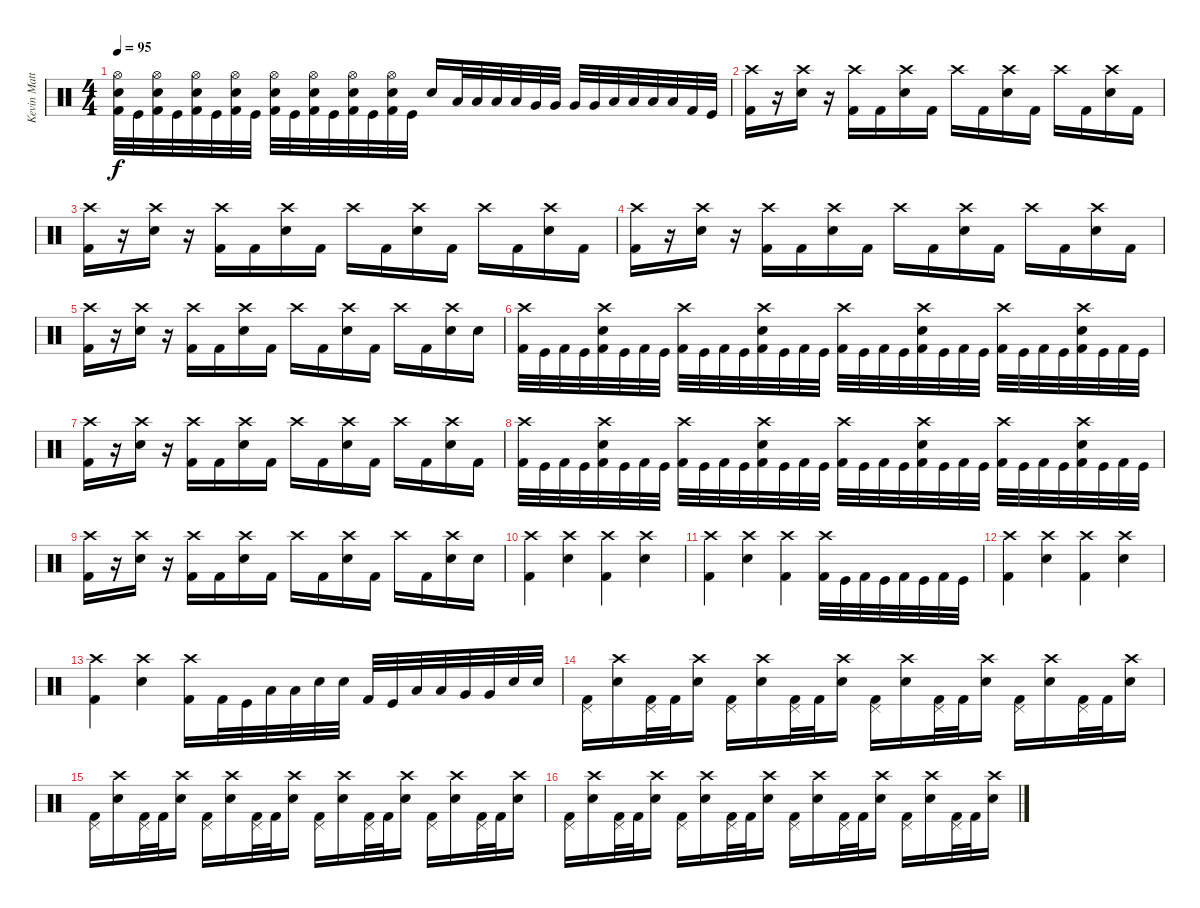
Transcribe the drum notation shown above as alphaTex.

\track ("Kevin Matthews (Drums)" "Kevin Matt") {instrument percussion}
\staff {score}
\articulation defaults
\ts (4 4)
\tempo 95
\clef neutral
\ks c
("Hi-Hat (open)" "Electric Snare (hit)" "Kick (hit) 2").32{dy f} "Kick (hit)".32 ("Hi-Hat (open)" "Electric Snare (hit)" "Kick (hit) 2").32 "Kick (hit)".32 ("Hi-Hat (open)" "Electric Snare (hit)" "Kick (hit) 2").32 "Kick (hit)".32 ("Hi-Hat (open)" "Electric Snare (hit)" "Kick (hit) 2").32 "Kick (hit)".32 ("Hi-Hat (open)" "Electric Snare (hit)" "Kick (hit) 2").32 "Kick (hit)".32 ("Hi-Hat (open)" "Electric Snare (hit)" "Kick (hit) 2").32 "Kick (hit)".32 ("Hi-Hat (open)" "Electric Snare (hit)" "Kick (hit) 2").32 "Kick (hit)".32 ("Hi-Hat (open)" "Electric Snare (hit)" "Kick (hit) 2").32 "Kick (hit)".32 "Electric Snare (hit)".16 "Low Tom (hit)".32 "Low Tom (hit)".32 "Low Tom (hit)".32 "Low Tom (hit)".32 "Very Low Tom (hit)".32 "Very Low Tom (hit)".32 "Very Low Tom (hit)".32 "Very Low Tom (hit)".32 "Low Floor Tom (hit)".32 "Low Floor Tom (hit)".32 "Low Floor Tom (hit)".32 "Low Floor Tom (hit)".32 "Kick (hit) 2".32 "Kick (hit)".32 |
("Crash high (hit)" "Kick (hit) 2").16 r.16 ("Crash high (hit)" "Electric Snare (hit)").16 r.16 ("Crash high (hit)" "Kick (hit) 2").16 "Kick (hit) 2".16 ("Crash high (hit)" "Electric Snare (hit)").16 "Kick (hit) 2".16 "Crash high (hit)".16 "Kick (hit) 2".16 ("Crash high (hit)" "Electric Snare (hit)").16 "Kick (hit) 2".16 "Crash high (hit)".16 "Kick (hit) 2".16 ("Crash high (hit)" "Electric Snare (hit)").16 "Kick (hit) 2".16 |
("Crash high (hit)" "Kick (hit) 2").16 r.16 ("Crash high (hit)" "Electric Snare (hit)").16 r.16 ("Crash high (hit)" "Kick (hit) 2").16 "Kick (hit) 2".16 ("Crash high (hit)" "Electric Snare (hit)").16 "Kick (hit) 2".16 "Crash high (hit)".16 "Kick (hit) 2".16 ("Crash high (hit)" "Electric Snare (hit)").16 "Kick (hit) 2".16 "Crash high (hit)".16 "Kick (hit) 2".16 ("Crash high (hit)" "Electric Snare (hit)").16 "Kick (hit) 2".16 |
("Crash high (hit)" "Kick (hit) 2").16 r.16 ("Crash high (hit)" "Electric Snare (hit)").16 r.16 ("Crash high (hit)" "Kick (hit) 2").16 "Kick (hit) 2".16 ("Crash high (hit)" "Electric Snare (hit)").16 "Kick (hit) 2".16 "Crash high (hit)".16 "Kick (hit) 2".16 ("Crash high (hit)" "Electric Snare (hit)").16 "Kick (hit) 2".16 "Crash high (hit)".16 "Kick (hit) 2".16 ("Crash high (hit)" "Electric Snare (hit)").16 "Kick (hit) 2".16 |
("Crash high (hit)" "Kick (hit) 2").16 r.16 ("Crash high (hit)" "Electric Snare (hit)").16 r.16 ("Crash high (hit)" "Kick (hit) 2").16 "Kick (hit) 2".16 ("Crash high (hit)" "Electric Snare (hit)").16 "Kick (hit) 2".16 "Crash high (hit)".16 "Kick (hit) 2".16 ("Crash high (hit)" "Electric Snare (hit)").16 "Kick (hit) 2".16 "Crash high (hit)".16 "Kick (hit) 2".16 ("Crash high (hit)" "Electric Snare (hit)").16 "Electric Snare (hit)".16 |
("Crash high (hit)" "Kick (hit) 2").32 "Kick (hit)".32 "Kick (hit) 2".32 "Kick (hit)".32 ("Crash high (hit)" "Electric Snare (hit)" "Kick (hit) 2").32 "Kick (hit)".32 "Kick (hit) 2".32 "Kick (hit)".32 ("Crash high (hit)" "Kick (hit) 2").32 "Kick (hit)".32 "Kick (hit) 2".32 "Kick (hit)".32 ("Crash high (hit)" "Electric Snare (hit)" "Kick (hit) 2").32 "Kick (hit)".32 "Kick (hit) 2".32 "Kick (hit)".32 ("Crash high (hit)" "Kick (hit) 2").32 "Kick (hit)".32 "Kick (hit) 2".32 "Kick (hit)".32 ("Crash high (hit)" "Electric Snare (hit)" "Kick (hit) 2").32 "Kick (hit)".32 "Kick (hit) 2".32 "Kick (hit)".32 ("Crash high (hit)" "Kick (hit) 2").32 "Kick (hit)".32 "Kick (hit) 2".32 "Kick (hit)".32 ("Crash high (hit)" "Electric Snare (hit)" "Kick (hit) 2").32 "Kick (hit)".32 "Kick (hit) 2".32 "Kick (hit)".32 |
("Crash high (hit)" "Kick (hit) 2").16 r.16 ("Crash high (hit)" "Electric Snare (hit)").16 r.16 ("Crash high (hit)" "Kick (hit) 2").16 "Kick (hit) 2".16 ("Crash high (hit)" "Electric Snare (hit)").16 "Kick (hit) 2".16 "Crash high (hit)".16 "Kick (hit) 2".16 ("Crash high (hit)" "Electric Snare (hit)").16 "Kick (hit) 2".16 "Crash high (hit)".16 "Kick (hit) 2".16 ("Crash high (hit)" "Electric Snare (hit)").16 "Kick (hit) 2".16 |
("Crash high (hit)" "Kick (hit) 2").32 "Kick (hit)".32 "Kick (hit) 2".32 "Kick (hit)".32 ("Crash high (hit)" "Electric Snare (hit)" "Kick (hit) 2").32 "Kick (hit)".32 "Kick (hit) 2".32 "Kick (hit)".32 ("Crash high (hit)" "Kick (hit) 2").32 "Kick (hit)".32 "Kick (hit) 2".32 "Kick (hit)".32 ("Crash high (hit)" "Electric Snare (hit)" "Kick (hit) 2").32 "Kick (hit)".32 "Kick (hit) 2".32 "Kick (hit)".32 ("Crash high (hit)" "Kick (hit) 2").32 "Kick (hit)".32 "Kick (hit) 2".32 "Kick (hit)".32 ("Crash high (hit)" "Electric Snare (hit)" "Kick (hit) 2").32 "Kick (hit)".32 "Kick (hit) 2".32 "Kick (hit)".32 ("Crash high (hit)" "Kick (hit) 2").32 "Kick (hit)".32 "Kick (hit) 2".32 "Kick (hit)".32 ("Crash high (hit)" "Electric Snare (hit)" "Kick (hit) 2").32 "Kick (hit)".32 "Kick (hit) 2".32 "Kick (hit)".32 |
("Crash high (hit)" "Kick (hit) 2").16 r.16 ("Crash high (hit)" "Electric Snare (hit)").16 r.16 ("Crash high (hit)" "Kick (hit) 2").16 "Kick (hit) 2".16 ("Crash high (hit)" "Electric Snare (hit)").16 "Kick (hit) 2".16 "Crash high (hit)".16 "Kick (hit) 2".16 ("Crash high (hit)" "Electric Snare (hit)").16 "Kick (hit) 2".16 "Crash high (hit)".16 "Kick (hit) 2".16 ("Crash high (hit)" "Electric Snare (hit)").16 "Electric Snare (hit)".16 |
("Crash high (hit)" "Kick (hit) 2").4 ("Crash high (hit)" "Electric Snare (hit)").4 ("Crash high (hit)" "Kick (hit) 2").4 ("Crash high (hit)" "Electric Snare (hit)").4 |
("Crash high (hit)" "Kick (hit) 2").4 ("Crash high (hit)" "Electric Snare (hit)").4 ("Crash high (hit)" "Kick (hit) 2").4 ("Crash high (hit)" "Kick (hit) 2").32 "Kick (hit)".32 "Kick (hit) 2".32 "Kick (hit)".32 "Kick (hit) 2".32 "Kick (hit)".32 "Kick (hit) 2".32 "Kick (hit)".32 |
("Crash high (hit)" "Kick (hit) 2").4 ("Crash high (hit)" "Electric Snare (hit)").4 ("Crash high (hit)" "Kick (hit) 2").4 ("Crash high (hit)" "Electric Snare (hit)").4 |
("Crash high (hit)" "Kick (hit) 2").4 ("Crash high (hit)" "Electric Snare (hit)").4 ("Crash high (hit)" "Kick (hit) 2").16 "Kick (hit) 2".32 "Kick (hit)".32 "Low Floor Tom (hit)".32 "Low Floor Tom (hit)".32 "Electric Snare (hit)".32 "Electric Snare (hit)".32 "Kick (hit) 2".32 "Kick (hit)".32 "Low Floor Tom (hit)".32 "Low Floor Tom (hit)".32 "Very Low Tom (hit)".32 "Very Low Tom (hit)".32 "Electric Snare (hit)".32 "Electric Snare (hit)".32 |
("Pedal Hi-Hat (hit)" "Kick (hit) 2").16 ("Crash high (hit)" "Electric Snare (hit)").16 ("Pedal Hi-Hat (hit)" "Kick (hit) 2").32 "Kick (hit) 2".32 ("Crash high (hit)" "Electric Snare (hit)").16 ("Pedal Hi-Hat (hit)" "Kick (hit) 2").16 ("Crash high (hit)" "Electric Snare (hit)").16 ("Pedal Hi-Hat (hit)" "Kick (hit) 2").32 "Kick (hit) 2".32 ("Crash high (hit)" "Electric Snare (hit)").16 ("Pedal Hi-Hat (hit)" "Kick (hit) 2").16 ("Crash high (hit)" "Electric Snare (hit)").16 ("Pedal Hi-Hat (hit)" "Kick (hit) 2").32 "Kick (hit) 2".32 ("Crash high (hit)" "Electric Snare (hit)").16 ("Pedal Hi-Hat (hit)" "Kick (hit) 2").16 ("Crash high (hit)" "Electric Snare (hit)").16 ("Pedal Hi-Hat (hit)" "Kick (hit) 2").32 "Kick (hit) 2".32 ("Crash high (hit)" "Electric Snare (hit)").16 |
("Pedal Hi-Hat (hit)" "Kick (hit) 2").16 ("Crash high (hit)" "Electric Snare (hit)").16 ("Pedal Hi-Hat (hit)" "Kick (hit) 2").32 "Kick (hit) 2".32 ("Crash high (hit)" "Electric Snare (hit)").16 ("Pedal Hi-Hat (hit)" "Kick (hit) 2").16 ("Crash high (hit)" "Electric Snare (hit)").16 ("Pedal Hi-Hat (hit)" "Kick (hit) 2").32 "Kick (hit) 2".32 ("Crash high (hit)" "Electric Snare (hit)").16 ("Pedal Hi-Hat (hit)" "Kick (hit) 2").16 ("Crash high (hit)" "Electric Snare (hit)").16 ("Pedal Hi-Hat (hit)" "Kick (hit) 2").32 "Kick (hit) 2".32 ("Crash high (hit)" "Electric Snare (hit)").16 ("Pedal Hi-Hat (hit)" "Kick (hit) 2").16 ("Crash high (hit)" "Electric Snare (hit)").16 ("Pedal Hi-Hat (hit)" "Kick (hit) 2").32 "Kick (hit) 2".32 ("Crash high (hit)" "Electric Snare (hit)").16 |
("Pedal Hi-Hat (hit)" "Kick (hit) 2").16 ("Crash high (hit)" "Electric Snare (hit)").16 ("Pedal Hi-Hat (hit)" "Kick (hit) 2").32 "Kick (hit) 2".32 ("Crash high (hit)" "Electric Snare (hit)").16 ("Pedal Hi-Hat (hit)" "Kick (hit) 2").16 ("Crash high (hit)" "Electric Snare (hit)").16 ("Pedal Hi-Hat (hit)" "Kick (hit) 2").32 "Kick (hit) 2".32 ("Crash high (hit)" "Electric Snare (hit)").16 ("Pedal Hi-Hat (hit)" "Kick (hit) 2").16 ("Crash high (hit)" "Electric Snare (hit)").16 ("Pedal Hi-Hat (hit)" "Kick (hit) 2").32 "Kick (hit) 2".32 ("Crash high (hit)" "Electric Snare (hit)").16 ("Pedal Hi-Hat (hit)" "Kick (hit) 2").16 ("Crash high (hit)" "Electric Snare (hit)").16 ("Pedal Hi-Hat (hit)" "Kick (hit) 2").32 "Kick (hit) 2".32 ("Crash high (hit)" "Electric Snare (hit)").16
